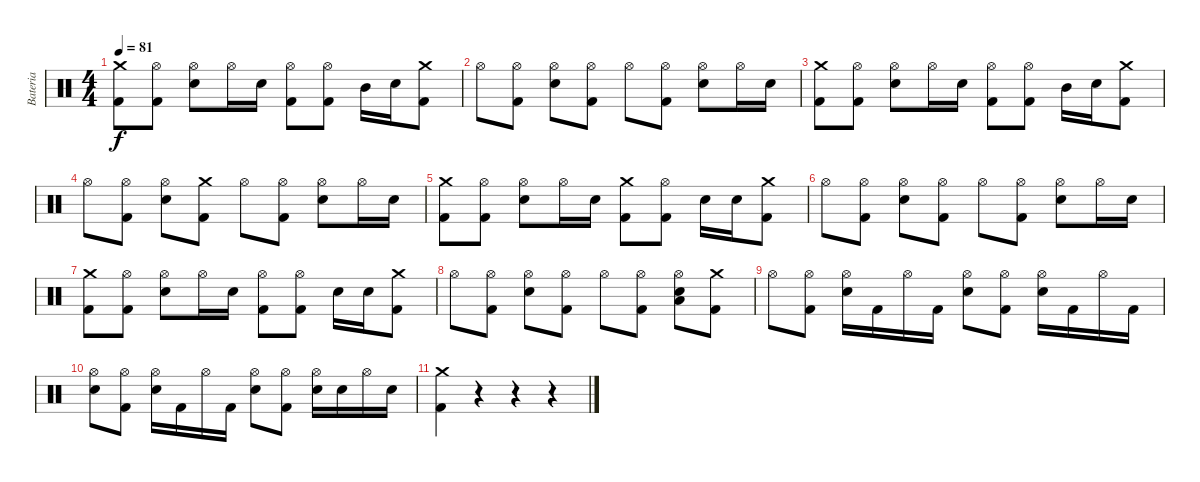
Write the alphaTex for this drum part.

\track ("Bateria" "Bateria") {instrument percussion}
\staff {score}
\articulation defaults
\ts (4 4)
\tempo 81
\clef neutral
\ks c
("Crash medium (hit)" "Kick (hit) 2").8{dy f} ("Hi-Hat (open)" "Kick (hit) 2").8 ("Hi-Hat (open)" "Electric Snare (hit)").8 "Hi-Hat (open)".16 "Electric Snare (hit)".16 ("Hi-Hat (open)" "Kick (hit) 2").8 ("Hi-Hat (open)" "Kick (hit) 2").8 "Mid Tom (hit)".16 "Electric Snare (hit)".16 ("Crash medium (hit)" "Kick (hit) 2").8 |
"Hi-Hat (open)".8 ("Hi-Hat (open)" "Kick (hit) 2").8 ("Hi-Hat (open)" "Electric Snare (hit)").8 ("Hi-Hat (open)" "Kick (hit) 2").8 "Hi-Hat (open)".8 ("Hi-Hat (open)" "Kick (hit) 2").8 ("Hi-Hat (open)" "Electric Snare (hit)").8 "Hi-Hat (open)".16 "Electric Snare (hit)".16 |
("Crash medium (hit)" "Kick (hit) 2").8 ("Hi-Hat (open)" "Kick (hit) 2").8 ("Hi-Hat (open)" "Electric Snare (hit)").8 "Hi-Hat (open)".16 "Electric Snare (hit)".16 ("Hi-Hat (open)" "Kick (hit) 2").8 ("Hi-Hat (open)" "Kick (hit) 2").8 "Mid Tom (hit)".16 "Electric Snare (hit)".16 ("Crash medium (hit)" "Kick (hit) 2").8 |
"Hi-Hat (open)".8 ("Hi-Hat (open)" "Kick (hit) 2").8 ("Hi-Hat (open)" "Electric Snare (hit)").8 ("Crash medium (hit)" "Kick (hit) 2").8 "Hi-Hat (open)".8 ("Hi-Hat (open)" "Kick (hit) 2").8 ("Hi-Hat (open)" "Electric Snare (hit)").8 "Hi-Hat (open)".16 "Electric Snare (hit)".16 |
("Crash medium (hit)" "Kick (hit) 2").8 ("Hi-Hat (open)" "Kick (hit) 2").8 ("Hi-Hat (open)" "Electric Snare (hit)").8 "Hi-Hat (open)".16 "Electric Snare (hit)".16 ("Crash medium (hit)" "Kick (hit) 2").8 ("Hi-Hat (open)" "Kick (hit) 2").8 "Electric Snare (hit)".16 "Electric Snare (hit)".16 ("Crash medium (hit)" "Kick (hit) 2").8 |
"Hi-Hat (open)".8 ("Hi-Hat (open)" "Kick (hit) 2").8 ("Hi-Hat (open)" "Electric Snare (hit)").8 ("Hi-Hat (open)" "Kick (hit) 2").8 "Hi-Hat (open)".8 ("Hi-Hat (open)" "Kick (hit) 2").8 ("Hi-Hat (open)" "Electric Snare (hit)").8 "Hi-Hat (open)".16 "Electric Snare (hit)".16 |
("Crash medium (hit)" "Kick (hit) 2").8 ("Hi-Hat (open)" "Kick (hit) 2").8 ("Hi-Hat (open)" "Electric Snare (hit)").8 "Hi-Hat (open)".16 "Electric Snare (hit)".16 ("Hi-Hat (open)" "Kick (hit) 2").8 ("Hi-Hat (open)" "Kick (hit) 2").8 "Electric Snare (hit)".16 "Electric Snare (hit)".16 ("Crash medium (hit)" "Kick (hit) 2").8 |
"Hi-Hat (open)".8 ("Hi-Hat (open)" "Kick (hit) 2").8 ("Hi-Hat (open)" "Electric Snare (hit)").8 ("Hi-Hat (open)" "Kick (hit) 2").8 "Hi-Hat (open)".8 ("Hi-Hat (open)" "Kick (hit) 2").8 ("Hi-Hat (open)" "Low Tom (hit)" "Electric Snare (hit)").8 ("Crash medium (hit)" "Kick (hit) 2").8 |
"Hi-Hat (open)".8 ("Hi-Hat (open)" "Kick (hit) 2").8 ("Hi-Hat (open)" "Electric Snare (hit)").16 "Kick (hit) 2".16 "Hi-Hat (open)".16 "Kick (hit) 2".16 ("Hi-Hat (open)" "Electric Snare (hit)").8 ("Hi-Hat (open)" "Kick (hit) 2").8 ("Hi-Hat (open)" "Electric Snare (hit)").16 "Kick (hit) 2".16 "Hi-Hat (open)".16 "Kick (hit) 2".16 |
("Hi-Hat (open)" "Electric Snare (hit)").8 ("Hi-Hat (open)" "Kick (hit) 2").8 ("Hi-Hat (open)" "Electric Snare (hit)").16 "Kick (hit) 2".16 "Hi-Hat (open)".16 "Kick (hit) 2".16 ("Hi-Hat (open)" "Electric Snare (hit)").8 ("Hi-Hat (open)" "Kick (hit) 2").8 ("Hi-Hat (open)" "Electric Snare (hit)").16 "Electric Snare (hit)".16 "Hi-Hat (open)".16 "Electric Snare (hit)".16 |
("Crash medium (hit)" "Kick (hit) 2").4 r.4 r.4 r.4
